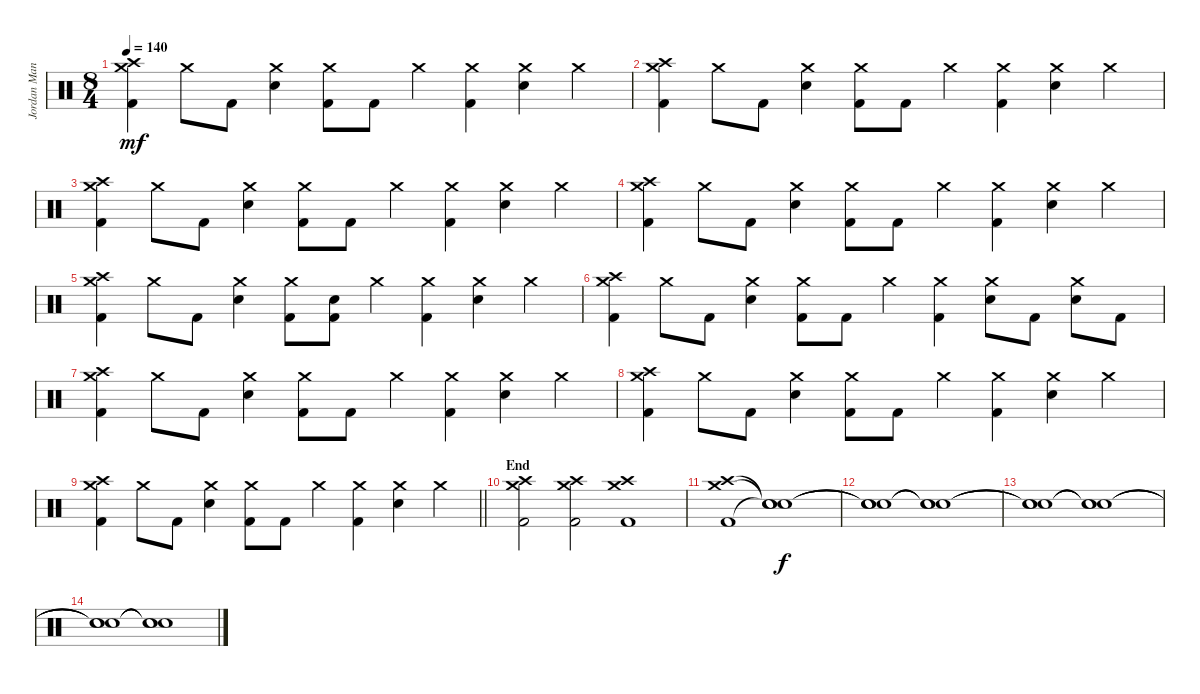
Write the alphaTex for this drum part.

\track ("Jordan Mancino" "Jordan Man") {instrument percussion}
\staff {score}
\articulation defaults
\ts (8 4)
\tempo 140
\clef neutral
\ks c
("Crash medium (hit)" "Crash high (hit)" "Kick (hit) 2").4{dy mf} "Crash medium (hit)".8 "Kick (hit) 2".8 ("Crash medium (hit)" "Electric Snare (hit)").4 ("Crash medium (hit)" "Kick (hit) 2").8 "Kick (hit) 2".8 "Crash medium (hit)".4 ("Crash medium (hit)" "Kick (hit) 2").4 ("Crash medium (hit)" "Electric Snare (hit)").4 "Crash medium (hit)".4 |
("Crash medium (hit)" "Crash high (hit)" "Kick (hit) 2").4 "Crash medium (hit)".8 "Kick (hit) 2".8 ("Crash medium (hit)" "Electric Snare (hit)").4 ("Crash medium (hit)" "Kick (hit) 2").8 "Kick (hit) 2".8 "Crash medium (hit)".4 ("Crash medium (hit)" "Kick (hit) 2").4 ("Crash medium (hit)" "Electric Snare (hit)").4 "Crash medium (hit)".4 |
("Crash medium (hit)" "Crash high (hit)" "Kick (hit) 2").4 "Crash medium (hit)".8 "Kick (hit) 2".8 ("Crash medium (hit)" "Electric Snare (hit)").4 ("Crash medium (hit)" "Kick (hit) 2").8 "Kick (hit) 2".8 "Crash medium (hit)".4 ("Crash medium (hit)" "Kick (hit) 2").4 ("Crash medium (hit)" "Electric Snare (hit)").4 "Crash medium (hit)".4 |
("Crash medium (hit)" "Crash high (hit)" "Kick (hit) 2").4 "Crash medium (hit)".8 "Kick (hit) 2".8 ("Crash medium (hit)" "Electric Snare (hit)").4 ("Crash medium (hit)" "Kick (hit) 2").8 "Kick (hit) 2".8 "Crash medium (hit)".4 ("Crash medium (hit)" "Kick (hit) 2").4 ("Crash medium (hit)" "Electric Snare (hit)").4 "Crash medium (hit)".4 |
("Crash medium (hit)" "Crash high (hit)" "Kick (hit) 2").4 "Crash medium (hit)".8 "Kick (hit) 2".8 ("Crash medium (hit)" "Electric Snare (hit)").4 ("Crash medium (hit)" "Kick (hit) 2").8 ("Electric Snare (hit)" "Kick (hit) 2").8 "Crash medium (hit)".4 ("Crash medium (hit)" "Kick (hit) 2").4 ("Crash medium (hit)" "Electric Snare (hit)").4 "Crash medium (hit)".4 |
("Crash medium (hit)" "Crash high (hit)" "Kick (hit) 2").4 "Crash medium (hit)".8 "Kick (hit) 2".8 ("Crash medium (hit)" "Electric Snare (hit)").4 ("Crash medium (hit)" "Kick (hit) 2").8 "Kick (hit) 2".8 "Crash medium (hit)".4 ("Crash medium (hit)" "Kick (hit) 2").4 ("Crash medium (hit)" "Electric Snare (hit)").8 "Kick (hit) 2".8 ("Crash medium (hit)" "Electric Snare (hit)").8 "Kick (hit) 2".8 |
("Crash medium (hit)" "Crash high (hit)" "Kick (hit) 2").4 "Crash medium (hit)".8 "Kick (hit) 2".8 ("Crash medium (hit)" "Electric Snare (hit)").4 ("Crash medium (hit)" "Kick (hit) 2").8 "Kick (hit) 2".8 "Crash medium (hit)".4 ("Crash medium (hit)" "Kick (hit) 2").4 ("Crash medium (hit)" "Electric Snare (hit)").4 "Crash medium (hit)".4 |
("Crash medium (hit)" "Crash high (hit)" "Kick (hit) 2").4 "Crash medium (hit)".8 "Kick (hit) 2".8 ("Crash medium (hit)" "Electric Snare (hit)").4 ("Crash medium (hit)" "Kick (hit) 2").8 "Kick (hit) 2".8 "Crash medium (hit)".4 ("Crash medium (hit)" "Kick (hit) 2").4 ("Crash medium (hit)" "Electric Snare (hit)").4 "Crash medium (hit)".4 |
\barLineRight lightlight
("Crash medium (hit)" "Crash high (hit)" "Kick (hit) 2").4 "Crash medium (hit)".8 "Kick (hit) 2".8 ("Crash medium (hit)" "Electric Snare (hit)").4 ("Crash medium (hit)" "Kick (hit) 2").8 "Kick (hit) 2".8 "Crash medium (hit)".4 ("Crash medium (hit)" "Kick (hit) 2").4 ("Crash medium (hit)" "Electric Snare (hit)").4 "Crash medium (hit)".4 |
\section ("" "End")
("Crash high (hit)" "Crash medium (hit)" "Kick (hit) 2").2 ("Crash high (hit)" "Crash medium (hit)" "Kick (hit) 2").2 ("Crash high (hit)" "Crash medium (hit)" "Kick (hit) 2").1 |
("Crash high (hit)" "Crash medium (hit)" "Kick (hit) 2").1 ("Snare (hit)"{t} "Snare (hit)"{t} "Snare (hit)"{t}).1{dy f} |
("Snare (hit)"{t} "Snare (hit)"{t} "Snare (hit)"{t}).1 ("Snare (hit)"{t} "Snare (hit)"{t} "Snare (hit)"{t}).1 |
("Snare (hit)"{t} "Snare (hit)"{t} "Snare (hit)"{t}).1 ("Snare (hit)"{t} "Snare (hit)"{t} "Snare (hit)"{t}).1 |
("Snare (hit)"{t} "Snare (hit)"{t} "Snare (hit)"{t}).1 ("Snare (hit)"{t} "Snare (hit)"{t} "Snare (hit)"{t}).1
